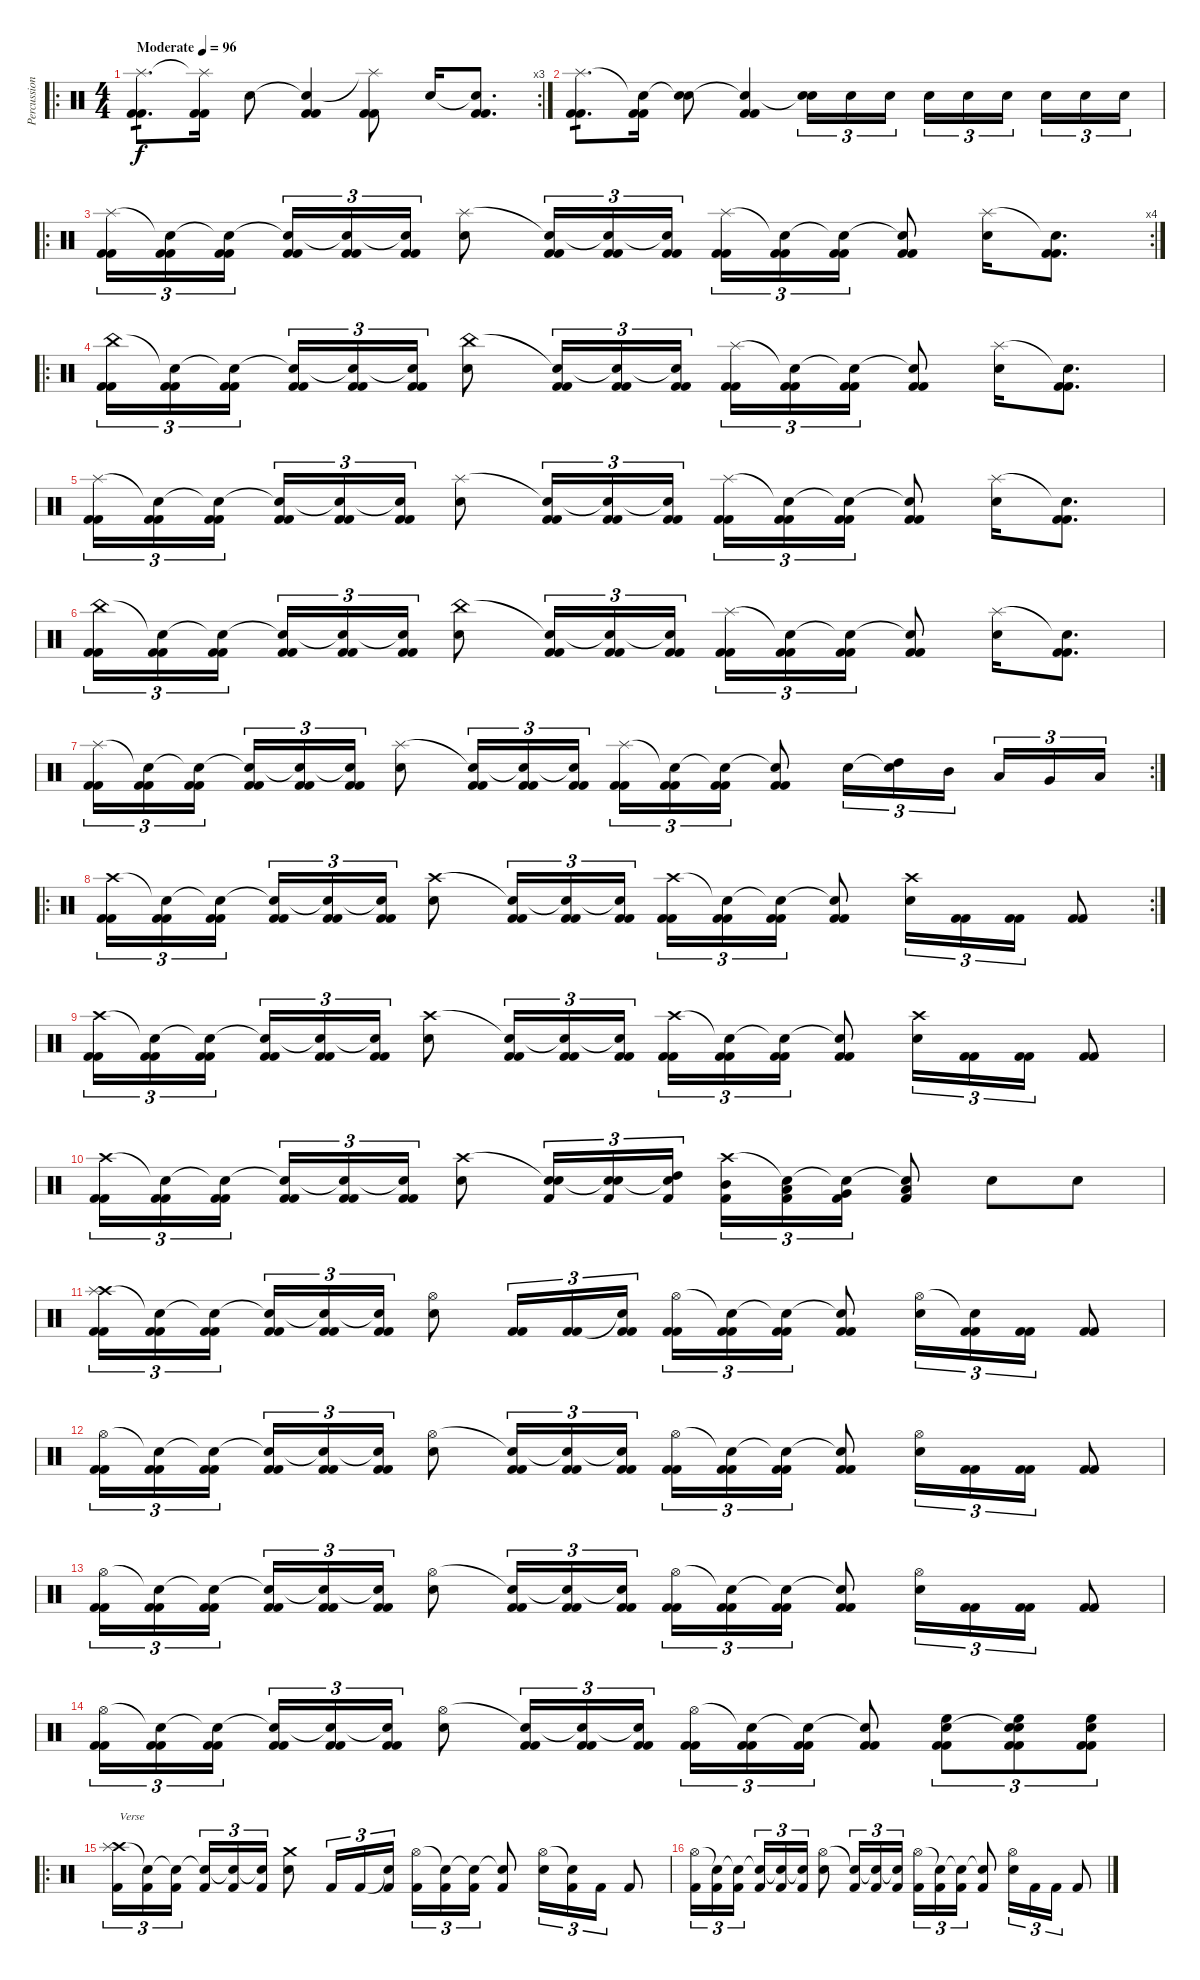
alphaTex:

\track ("Percussion" "Percussion") {instrument percussion}
\staff {score}
\articulation defaults
\ro
\rc 3
\ts (4 4)
\tempo (96 "Moderate")
\clef neutral
\ks c
("Splash (hit)" "Kick (hit) 2" "Kick (hit) 2").8{d tp 1 dy f} ("Splash (hit)"{t} "Kick (hit) 2" "Kick (hit) 2").16 "Snare (hit) 2".8 ("Snare (hit)"{t} "Kick (hit) 2" "Kick (hit) 2").4 ("Splash (hit)"{t} "Kick (hit) 2" "Kick (hit) 2").8 "Snare (hit) 2".16 ("Snare (hit)"{t} "Kick (hit) 2" "Kick (hit) 2").8{d} |
("Splash (hit)" "Kick (hit) 2" "Kick (hit) 2").8{d tp 1} ("Snare (hit)"{t} "Kick (hit) 2" "Kick (hit) 2").16 ("Snare (hit)"{t} "Snare (hit) 2").8 ("Snare (hit)"{t} "Kick (hit) 2" "Kick (hit) 2").4 ("Snare (hit)"{t} "Snare (hit) 2").16{tu (3 2)} "Snare (hit) 2".16{tu (3 2)} "Snare (hit) 2".16{tu (3 2)} "Snare (hit) 2".16{tu (3 2)} "Snare (hit) 2".16{tu (3 2)} "Snare (hit) 2".16{tu (3 2) beam splitsecondary} "Snare (hit) 2".16{tu (3 2)} "Snare (hit) 2".16{tu (3 2)} "Snare (hit) 2".16{tu (3 2)} |
\ro
\rc 4
("Splash (hit)" "Kick (hit) 2" "Kick (hit) 2").16{tu (3 2)} ("Snare (hit)"{t} "Kick (hit) 2" "Kick (hit) 2").16{tu (3 2)} ("Snare (hit)"{t} "Kick (hit) 2" "Kick (hit) 2").16{tu (3 2) beam splitsecondary} ("Snare (hit)"{t} "Kick (hit) 2" "Kick (hit) 2").16{tu (3 2)} ("Snare (hit)"{t} "Kick (hit) 2" "Kick (hit) 2").16{tu (3 2)} ("Snare (hit)"{t} "Kick (hit) 2" "Kick (hit) 2").16{tu (3 2)} ("Splash (hit)" "Snare (hit) 2").8 ("Snare (hit)"{t} "Kick (hit) 2" "Kick (hit) 2").16{tu (3 2)} ("Snare (hit)"{t} "Kick (hit) 2" "Kick (hit) 2").16{tu (3 2)} ("Snare (hit)"{t} "Kick (hit) 2" "Kick (hit) 2").16{tu (3 2)} ("Splash (hit)" "Kick (hit) 2" "Kick (hit) 2").16{tu (3 2)} ("Snare (hit)"{t} "Kick (hit) 2" "Kick (hit) 2").16{tu (3 2)} ("Snare (hit)"{t} "Kick (hit) 2" "Kick (hit) 2").16{tu (3 2)} ("Snare (hit)"{t} "Kick (hit) 2" "Kick (hit) 2").8 ("Splash (hit)" "Snare (hit) 2").16 ("Snare (hit)"{t} "Kick (hit) 2" "Kick (hit) 2").8{d} |
\ro
("China (hit)" "Kick (hit) 2" "Kick (hit) 2").16{tu (3 2)} ("Snare (hit)"{t} "Kick (hit) 2" "Kick (hit) 2").16{tu (3 2)} ("Snare (hit)"{t} "Kick (hit) 2" "Kick (hit) 2").16{tu (3 2) beam splitsecondary} ("Snare (hit)"{t} "Kick (hit) 2" "Kick (hit) 2").16{tu (3 2)} ("Snare (hit)"{t} "Kick (hit) 2" "Kick (hit) 2").16{tu (3 2)} ("Snare (hit)"{t} "Kick (hit) 2" "Kick (hit) 2").16{tu (3 2)} ("China (hit)" "Snare (hit) 2").8 ("Snare (hit)"{t} "Kick (hit) 2" "Kick (hit) 2").16{tu (3 2)} ("Snare (hit)"{t} "Kick (hit) 2" "Kick (hit) 2").16{tu (3 2)} ("Snare (hit)"{t} "Kick (hit) 2" "Kick (hit) 2").16{tu (3 2)} ("Splash (hit)" "Kick (hit) 2" "Kick (hit) 2").16{tu (3 2)} ("Snare (hit)"{t} "Kick (hit) 2" "Kick (hit) 2").16{tu (3 2)} ("Snare (hit)"{t} "Kick (hit) 2" "Kick (hit) 2").16{tu (3 2)} ("Snare (hit)"{t} "Kick (hit) 2" "Kick (hit) 2").8 ("Splash (hit)" "Snare (hit) 2").16 ("Snare (hit)"{t} "Kick (hit) 2" "Kick (hit) 2").8{d} |
("Splash (hit)" "Kick (hit) 2" "Kick (hit) 2").16{tu (3 2)} ("Snare (hit)"{t} "Kick (hit) 2" "Kick (hit) 2").16{tu (3 2)} ("Snare (hit)"{t} "Kick (hit) 2" "Kick (hit) 2").16{tu (3 2) beam splitsecondary} ("Snare (hit)"{t} "Kick (hit) 2" "Kick (hit) 2").16{tu (3 2)} ("Snare (hit)"{t} "Kick (hit) 2" "Kick (hit) 2").16{tu (3 2)} ("Snare (hit)"{t} "Kick (hit) 2" "Kick (hit) 2").16{tu (3 2)} ("Splash (hit)" "Snare (hit) 2").8 ("Snare (hit)"{t} "Kick (hit) 2" "Kick (hit) 2").16{tu (3 2)} ("Snare (hit)"{t} "Kick (hit) 2" "Kick (hit) 2").16{tu (3 2)} ("Snare (hit)"{t} "Kick (hit) 2" "Kick (hit) 2").16{tu (3 2)} ("Splash (hit)" "Kick (hit) 2" "Kick (hit) 2").16{tu (3 2)} ("Snare (hit)"{t} "Kick (hit) 2" "Kick (hit) 2").16{tu (3 2)} ("Snare (hit)"{t} "Kick (hit) 2" "Kick (hit) 2").16{tu (3 2)} ("Snare (hit)"{t} "Kick (hit) 2" "Kick (hit) 2").8 ("Splash (hit)" "Snare (hit) 2").16 ("Snare (hit)"{t} "Kick (hit) 2" "Kick (hit) 2").8{d} |
("China (hit)" "Kick (hit) 2" "Kick (hit) 2").16{tu (3 2)} ("Snare (hit)"{t} "Kick (hit) 2" "Kick (hit) 2").16{tu (3 2)} ("Snare (hit)"{t} "Kick (hit) 2" "Kick (hit) 2").16{tu (3 2) beam splitsecondary} ("Snare (hit)"{t} "Kick (hit) 2" "Kick (hit) 2").16{tu (3 2)} ("Snare (hit)"{t} "Kick (hit) 2" "Kick (hit) 2").16{tu (3 2)} ("Snare (hit)"{t} "Kick (hit) 2" "Kick (hit) 2").16{tu (3 2)} ("China (hit)" "Snare (hit) 2").8 ("Snare (hit)"{t} "Kick (hit) 2" "Kick (hit) 2").16{tu (3 2)} ("Snare (hit)"{t} "Kick (hit) 2" "Kick (hit) 2").16{tu (3 2)} ("Snare (hit)"{t} "Kick (hit) 2" "Kick (hit) 2").16{tu (3 2)} ("Splash (hit)" "Kick (hit) 2" "Kick (hit) 2").16{tu (3 2)} ("Snare (hit)"{t} "Kick (hit) 2" "Kick (hit) 2").16{tu (3 2)} ("Snare (hit)"{t} "Kick (hit) 2" "Kick (hit) 2").16{tu (3 2)} ("Snare (hit)"{t} "Kick (hit) 2" "Kick (hit) 2").8 ("Splash (hit)" "Snare (hit) 2").16 ("Snare (hit)"{t} "Kick (hit) 2" "Kick (hit) 2").8{d} |
\rc 2
("Splash (hit)" "Kick (hit) 2" "Kick (hit) 2").16{tu (3 2)} ("Snare (hit)"{t} "Kick (hit) 2" "Kick (hit) 2").16{tu (3 2)} ("Snare (hit)"{t} "Kick (hit) 2" "Kick (hit) 2").16{tu (3 2) beam splitsecondary} ("Snare (hit)"{t} "Kick (hit) 2" "Kick (hit) 2").16{tu (3 2)} ("Snare (hit)"{t} "Kick (hit) 2" "Kick (hit) 2").16{tu (3 2)} ("Snare (hit)"{t} "Kick (hit) 2" "Kick (hit) 2").16{tu (3 2)} ("Splash (hit)" "Snare (hit) 2").8 ("Snare (hit)"{t} "Kick (hit) 2" "Kick (hit) 2").16{tu (3 2)} ("Snare (hit)"{t} "Kick (hit) 2" "Kick (hit) 2").16{tu (3 2)} ("Snare (hit)"{t} "Kick (hit) 2" "Kick (hit) 2").16{tu (3 2)} ("Splash (hit)" "Kick (hit) 2" "Kick (hit) 2").16{tu (3 2)} ("Snare (hit)"{t} "Kick (hit) 2" "Kick (hit) 2").16{tu (3 2)} ("Snare (hit)"{t} "Kick (hit) 2" "Kick (hit) 2").16{tu (3 2)} ("Snare (hit)"{t} "Kick (hit) 2" "Kick (hit) 2").8 "Snare (hit) 2".16{tu (3 2)} ("Snare (hit)"{t} "High Tom (hit)").16{tu (3 2)} "Mid Tom (hit)".16{tu (3 2) beam splitsecondary} "Low Tom (hit)".16{tu (3 2)} "Very Low Tom (hit)".16{tu (3 2)} "Low Floor Tom (hit)".16{tu (3 2)} |
\ro
\rc 2
("Crash high (hit)" "Kick (hit) 2" "Kick (hit) 2").16{tu (3 2)} ("Snare (hit)"{t} "Kick (hit) 2" "Kick (hit) 2").16{tu (3 2)} ("Snare (hit)"{t} "Kick (hit) 2" "Kick (hit) 2").16{tu (3 2) beam splitsecondary} ("Snare (hit)"{t} "Kick (hit) 2" "Kick (hit) 2").16{tu (3 2)} ("Snare (hit)"{t} "Kick (hit) 2" "Kick (hit) 2").16{tu (3 2)} ("Snare (hit)"{t} "Kick (hit) 2" "Kick (hit) 2").16{tu (3 2)} ("Crash high (hit)" "Snare (hit) 2").8 ("Snare (hit)"{t} "Kick (hit) 2" "Kick (hit) 2").16{tu (3 2)} ("Snare (hit)"{t} "Kick (hit) 2" "Kick (hit) 2").16{tu (3 2)} ("Snare (hit)"{t} "Kick (hit) 2" "Kick (hit) 2").16{tu (3 2)} ("Crash high (hit)" "Kick (hit) 2" "Kick (hit) 2").16{tu (3 2)} ("Snare (hit)"{t} "Kick (hit) 2" "Kick (hit) 2").16{tu (3 2)} ("Snare (hit)"{t} "Kick (hit) 2" "Kick (hit) 2").16{tu (3 2)} ("Snare (hit)"{t} "Kick (hit) 2" "Kick (hit) 2").8 ("Crash high (hit)" "Snare (hit) 2").16{tu (3 2)} ("Kick (hit) 2" "Kick (hit) 2").16{tu (3 2)} ("Kick (hit) 2" "Kick (hit) 2").16{tu (3 2)} ("Kick (hit) 2" "Kick (hit) 2").8 |
("Crash high (hit)" "Kick (hit) 2" "Kick (hit) 2").16{tu (3 2)} ("Snare (hit)"{t} "Kick (hit) 2" "Kick (hit) 2").16{tu (3 2)} ("Snare (hit)"{t} "Kick (hit) 2" "Kick (hit) 2").16{tu (3 2) beam splitsecondary} ("Snare (hit)"{t} "Kick (hit) 2" "Kick (hit) 2").16{tu (3 2)} ("Snare (hit)"{t} "Kick (hit) 2" "Kick (hit) 2").16{tu (3 2)} ("Snare (hit)"{t} "Kick (hit) 2" "Kick (hit) 2").16{tu (3 2)} ("Crash high (hit)" "Snare (hit) 2").8 ("Snare (hit)"{t} "Kick (hit) 2" "Kick (hit) 2").16{tu (3 2)} ("Snare (hit)"{t} "Kick (hit) 2" "Kick (hit) 2").16{tu (3 2)} ("Snare (hit)"{t} "Kick (hit) 2" "Kick (hit) 2").16{tu (3 2)} ("Crash high (hit)" "Kick (hit) 2" "Kick (hit) 2").16{tu (3 2)} ("Snare (hit)"{t} "Kick (hit) 2" "Kick (hit) 2").16{tu (3 2)} ("Snare (hit)"{t} "Kick (hit) 2" "Kick (hit) 2").16{tu (3 2)} ("Snare (hit)"{t} "Kick (hit) 2" "Kick (hit) 2").8 ("Crash high (hit)" "Snare (hit) 2").16{tu (3 2)} ("Kick (hit) 2" "Kick (hit) 2").16{tu (3 2)} ("Kick (hit) 2" "Kick (hit) 2").16{tu (3 2)} ("Kick (hit) 2" "Kick (hit) 2").8 |
("Crash high (hit)" "Kick (hit) 2" "Kick (hit) 2").16{tu (3 2)} ("Snare (hit)"{t} "Kick (hit) 2" "Kick (hit) 2").16{tu (3 2)} ("Snare (hit)"{t} "Kick (hit) 2" "Kick (hit) 2").16{tu (3 2) beam splitsecondary} ("Snare (hit)"{t} "Kick (hit) 2" "Kick (hit) 2").16{tu (3 2)} ("Snare (hit)"{t} "Kick (hit) 2" "Kick (hit) 2").16{tu (3 2)} ("Snare (hit)"{t} "Kick (hit) 2" "Kick (hit) 2").16{tu (3 2)} ("Crash high (hit)" "Snare (hit) 2").8 ("Snare (hit)"{t} "Snare (hit) 2" "Kick (hit) 2").16{tu (3 2)} ("Snare (hit)"{t} "Snare (hit) 2" "Kick (hit) 2").16{tu (3 2)} ("Snare (hit)"{t} "High Tom (hit)" "Kick (hit) 2").16{tu (3 2)} ("Crash high (hit)" "Mid Tom (hit)" "Kick (hit) 2").16{tu (3 2)} ("Snare (hit)"{t} "Low Tom (hit)" "Kick (hit) 2").16{tu (3 2)} ("Snare (hit)"{t} "Very Low Tom (hit)" "Kick (hit) 2").16{tu (3 2)} ("Snare (hit)"{t} "Low Floor Tom (hit)" "Kick (hit) 2").8 "Snare (hit) 2".8 "Snare (hit) 2".8 |
("Crash high (hit)" "Splash (hit)" "Kick (hit) 2" "Kick (hit) 2").16{tu (3 2)} ("Snare (hit)"{t} "Kick (hit) 2" "Kick (hit) 2").16{tu (3 2)} ("Snare (hit)"{t} "Kick (hit) 2" "Kick (hit) 2").16{tu (3 2) beam splitsecondary} ("Snare (hit)"{t} "Kick (hit) 2" "Kick (hit) 2").16{tu (3 2)} ("Snare (hit)"{t} "Kick (hit) 2" "Kick (hit) 2").16{tu (3 2)} ("Snare (hit)"{t} "Kick (hit) 2" "Kick (hit) 2").16{tu (3 2)} ("Hi-Hat (open)" "Snare (hit) 2").8 ("Kick (hit) 2" "Kick (hit) 2").16{tu (3 2)} ("Kick (hit) 2" "Kick (hit) 2").16{tu (3 2)} ("Snare (hit)"{t} "Kick (hit) 2" "Kick (hit) 2").16{tu (3 2)} ("Hi-Hat (open)" "Kick (hit) 2" "Kick (hit) 2").16{tu (3 2)} ("Snare (hit)"{t} "Kick (hit) 2" "Kick (hit) 2").16{tu (3 2)} ("Snare (hit)"{t} "Kick (hit) 2" "Kick (hit) 2").16{tu (3 2)} ("Snare (hit)"{t} "Kick (hit) 2" "Kick (hit) 2").8 ("Hi-Hat (open)" "Snare (hit) 2").16{tu (3 2)} ("Snare (hit)"{t} "Kick (hit) 2" "Kick (hit) 2").16{tu (3 2)} ("Kick (hit) 2" "Kick (hit) 2").16{tu (3 2)} ("Kick (hit) 2" "Kick (hit) 2").8 |
("Hi-Hat (open)" "Kick (hit) 2" "Kick (hit) 2").16{tu (3 2)} ("Snare (hit)"{t} "Kick (hit) 2" "Kick (hit) 2").16{tu (3 2)} ("Snare (hit)"{t} "Kick (hit) 2" "Kick (hit) 2").16{tu (3 2) beam splitsecondary} ("Snare (hit)"{t} "Kick (hit) 2" "Kick (hit) 2").16{tu (3 2)} ("Snare (hit)"{t} "Kick (hit) 2" "Kick (hit) 2").16{tu (3 2)} ("Snare (hit)"{t} "Kick (hit) 2" "Kick (hit) 2").16{tu (3 2)} ("Hi-Hat (open)" "Snare (hit) 2").8 ("Snare (hit)"{t} "Kick (hit) 2" "Kick (hit) 2").16{tu (3 2)} ("Snare (hit)"{t} "Kick (hit) 2" "Kick (hit) 2").16{tu (3 2)} ("Snare (hit)"{t} "Kick (hit) 2" "Kick (hit) 2").16{tu (3 2)} ("Hi-Hat (open)" "Kick (hit) 2" "Kick (hit) 2").16{tu (3 2)} ("Snare (hit)"{t} "Kick (hit) 2" "Kick (hit) 2").16{tu (3 2)} ("Snare (hit)"{t} "Kick (hit) 2" "Kick (hit) 2").16{tu (3 2)} ("Snare (hit)"{t} "Kick (hit) 2" "Kick (hit) 2").8 ("Hi-Hat (open)" "Snare (hit) 2").16{tu (3 2)} ("Kick (hit) 2" "Kick (hit) 2").16{tu (3 2)} ("Kick (hit) 2" "Kick (hit) 2").16{tu (3 2)} ("Kick (hit) 2" "Kick (hit) 2").8 |
("Hi-Hat (open)" "Kick (hit) 2" "Kick (hit) 2").16{tu (3 2)} ("Snare (hit)"{t} "Kick (hit) 2" "Kick (hit) 2").16{tu (3 2)} ("Snare (hit)"{t} "Kick (hit) 2" "Kick (hit) 2").16{tu (3 2) beam splitsecondary} ("Snare (hit)"{t} "Kick (hit) 2" "Kick (hit) 2").16{tu (3 2)} ("Snare (hit)"{t} "Kick (hit) 2" "Kick (hit) 2").16{tu (3 2)} ("Snare (hit)"{t} "Kick (hit) 2" "Kick (hit) 2").16{tu (3 2)} ("Hi-Hat (open)" "Snare (hit) 2").8 ("Snare (hit)"{t} "Kick (hit) 2" "Kick (hit) 2").16{tu (3 2)} ("Snare (hit)"{t} "Kick (hit) 2" "Kick (hit) 2").16{tu (3 2)} ("Snare (hit)"{t} "Kick (hit) 2" "Kick (hit) 2").16{tu (3 2)} ("Hi-Hat (open)" "Kick (hit) 2" "Kick (hit) 2").16{tu (3 2)} ("Snare (hit)"{t} "Kick (hit) 2" "Kick (hit) 2").16{tu (3 2)} ("Snare (hit)"{t} "Kick (hit) 2" "Kick (hit) 2").16{tu (3 2)} ("Snare (hit)"{t} "Kick (hit) 2" "Kick (hit) 2").8 ("Hi-Hat (open)" "Snare (hit) 2").16{tu (3 2)} ("Kick (hit) 2" "Kick (hit) 2").16{tu (3 2)} ("Kick (hit) 2" "Kick (hit) 2").16{tu (3 2)} ("Kick (hit) 2" "Kick (hit) 2").8 |
("Hi-Hat (open)" "Kick (hit) 2" "Kick (hit) 2").16{tu (3 2)} ("Snare (hit)"{t} "Kick (hit) 2" "Kick (hit) 2").16{tu (3 2)} ("Snare (hit)"{t} "Kick (hit) 2" "Kick (hit) 2").16{tu (3 2) beam splitsecondary} ("Snare (hit)"{t} "Kick (hit) 2" "Kick (hit) 2").16{tu (3 2)} ("Snare (hit)"{t} "Kick (hit) 2" "Kick (hit) 2").16{tu (3 2)} ("Snare (hit)"{t} "Kick (hit) 2" "Kick (hit) 2").16{tu (3 2)} ("Hi-Hat (open)" "Snare (hit) 2").8 ("Snare (hit)"{t} "Kick (hit) 2" "Kick (hit) 2").16{tu (3 2)} ("Snare (hit)"{t} "Kick (hit) 2" "Kick (hit) 2").16{tu (3 2)} ("Snare (hit)"{t} "Kick (hit) 2" "Kick (hit) 2").16{tu (3 2)} ("Hi-Hat (open)" "Kick (hit) 2" "Kick (hit) 2").16{tu (3 2)} ("Snare (hit)"{t} "Kick (hit) 2" "Kick (hit) 2").16{tu (3 2)} ("Snare (hit)"{t} "Kick (hit) 2" "Kick (hit) 2").16{tu (3 2)} ("Snare (hit)"{t} "Kick (hit) 2" "Kick (hit) 2").8 ("Snare (hit) 2" "High Floor Tom (hit)" "Kick (hit) 2" "Kick (hit) 2").8{tu (3 2)} ("Snare (hit)"{t} "Snare (hit) 2" "High Floor Tom (hit)" "Kick (hit) 2" "Kick (hit) 2").8{tu (3 2)} ("Snare (hit) 2" "High Floor Tom (hit)" "Kick (hit) 2" "Kick (hit) 2").8{tu (3 2)} |
\ro
("Crash high (hit)" "Splash (hit)" "Kick (hit) 2").16{tu (3 2) txt "Verse"} ("Snare (hit)"{t} "Kick (hit) 2").16{tu (3 2)} ("Snare (hit)"{t} "Kick (hit) 2").16{tu (3 2) beam splitsecondary} ("Snare (hit)"{t} "Kick (hit) 2").16{tu (3 2)} ("Snare (hit)"{t} "Kick (hit) 2").16{tu (3 2)} ("Snare (hit)"{t} "Kick (hit) 2").16{tu (3 2)} ("Crash medium (hit)" "Snare (hit) 2").8 "Kick (hit) 2".16{tu (3 2)} "Kick (hit) 2".16{tu (3 2)} ("Snare (hit)"{t} "Kick (hit) 2").16{tu (3 2)} ("Hi-Hat (open)" "Kick (hit) 2").16{tu (3 2)} ("Snare (hit)"{t} "Kick (hit) 2").16{tu (3 2)} ("Snare (hit)"{t} "Kick (hit) 2").16{tu (3 2)} ("Snare (hit)"{t} "Kick (hit) 2").8 ("Hi-Hat (open)" "Snare (hit) 2").16{tu (3 2)} ("Snare (hit)"{t} "Kick (hit) 2").16{tu (3 2)} "Kick (hit) 2".16{tu (3 2)} "Kick (hit) 2".8 |
("Hi-Hat (open)" "Kick (hit) 2").16{tu (3 2)} ("Snare (hit)"{t} "Kick (hit) 2").16{tu (3 2)} ("Snare (hit)"{t} "Kick (hit) 2").16{tu (3 2) beam splitsecondary} ("Snare (hit)"{t} "Kick (hit) 2").16{tu (3 2)} ("Snare (hit)"{t} "Kick (hit) 2").16{tu (3 2)} ("Snare (hit)"{t} "Kick (hit) 2").16{tu (3 2)} ("Hi-Hat (open)" "Snare (hit) 2").8 ("Snare (hit)"{t} "Kick (hit) 2").16{tu (3 2)} ("Snare (hit)"{t} "Kick (hit) 2").16{tu (3 2)} ("Snare (hit)"{t} "Kick (hit) 2").16{tu (3 2)} ("Hi-Hat (open)" "Kick (hit) 2").16{tu (3 2)} ("Snare (hit)"{t} "Kick (hit) 2").16{tu (3 2)} ("Snare (hit)"{t} "Kick (hit) 2").16{tu (3 2)} ("Snare (hit)"{t} "Kick (hit) 2").8 ("Hi-Hat (open)" "Snare (hit) 2").16{tu (3 2)} "Kick (hit) 2".16{tu (3 2)} "Kick (hit) 2".16{tu (3 2)} "Kick (hit) 2".8
